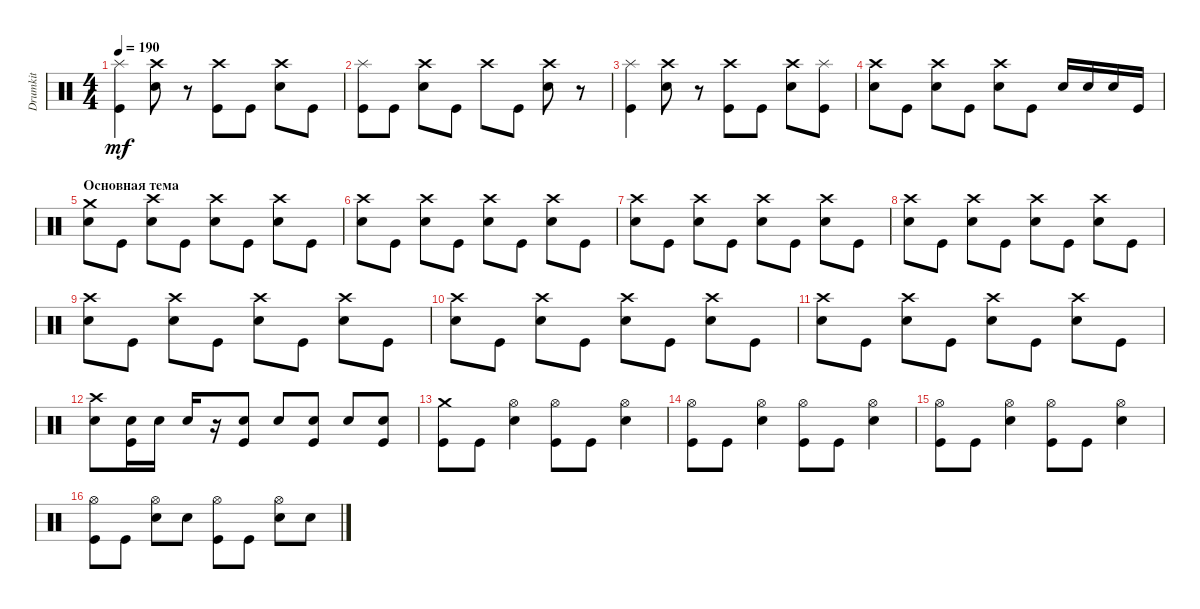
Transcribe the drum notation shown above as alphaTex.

\track ("Drumkit" "Drumkit") {instrument percussion}
\staff {score}
\articulation defaults
\ts (4 4)
\tempo 190
\clef neutral
\ks c
("Kick (hit)" "Splash (hit)").4{dy mf} ("Snare (hit) 2" "Crash high (hit)").8 r.8 ("Kick (hit)" "Crash high (hit)").8 "Kick (hit)".8 ("Snare (hit) 2" "Crash high (hit)").8 "Kick (hit)".8 |
("Splash (hit)" "Kick (hit)").8 "Kick (hit)".8 ("Snare (hit) 2" "Crash high (hit)").8 "Kick (hit)".8 "Crash high (hit)".8 "Kick (hit)".8 ("Snare (hit) 2" "Crash high (hit)").8 r.8 |
("Kick (hit)" "Splash (hit)").4 ("Snare (hit) 2" "Crash high (hit)").8 r.8 ("Kick (hit)" "Crash high (hit)").8 "Kick (hit)".8 ("Snare (hit) 2" "Crash high (hit)").8 ("Splash (hit)" "Kick (hit)").8 |
("Snare (hit) 2" "Crash high (hit)").8 "Kick (hit)".8 ("Snare (hit) 2" "Crash high (hit)").8 "Kick (hit)".8 ("Snare (hit) 2" "Crash high (hit)").8 "Kick (hit)".8 "Snare (hit) 2".16 "Snare (hit) 2".16 "Snare (hit) 2".16 "Kick (hit)".16 |
\section ("" "Основная тема")
("Snare (hit) 2" "Crash medium (hit)").8 "Kick (hit)".8 ("Snare (hit) 2" "Crash high (hit)").8 "Kick (hit)".8 ("Snare (hit) 2" "Crash high (hit)").8 "Kick (hit)".8 ("Snare (hit) 2" "Crash high (hit)").8 "Kick (hit)".8 |
("Snare (hit) 2" "Crash high (hit)").8 "Kick (hit)".8 ("Snare (hit) 2" "Crash high (hit)").8 "Kick (hit)".8 ("Snare (hit) 2" "Crash high (hit)").8 "Kick (hit)".8 ("Snare (hit) 2" "Crash high (hit)").8 "Kick (hit)".8 |
("Snare (hit) 2" "Crash high (hit)").8 "Kick (hit)".8 ("Snare (hit) 2" "Crash high (hit)").8 "Kick (hit)".8 ("Snare (hit) 2" "Crash high (hit)").8 "Kick (hit)".8 ("Snare (hit) 2" "Crash high (hit)").8 "Kick (hit)".8 |
("Snare (hit) 2" "Crash high (hit)").8 "Kick (hit)".8 ("Snare (hit) 2" "Crash high (hit)").8 "Kick (hit)".8 ("Snare (hit) 2" "Crash high (hit)").8 "Kick (hit)".8 ("Snare (hit) 2" "Crash high (hit)").8 "Kick (hit)".8 |
("Snare (hit) 2" "Crash high (hit)").8 "Kick (hit)".8 ("Snare (hit) 2" "Crash high (hit)").8 "Kick (hit)".8 ("Snare (hit) 2" "Crash high (hit)").8 "Kick (hit)".8 ("Snare (hit) 2" "Crash high (hit)").8 "Kick (hit)".8 |
("Snare (hit) 2" "Crash high (hit)").8 "Kick (hit)".8 ("Snare (hit) 2" "Crash high (hit)").8 "Kick (hit)".8 ("Snare (hit) 2" "Crash high (hit)").8 "Kick (hit)".8 ("Snare (hit) 2" "Crash high (hit)").8 "Kick (hit)".8 |
("Snare (hit) 2" "Crash high (hit)").8 "Kick (hit)".8 ("Snare (hit) 2" "Crash high (hit)").8 "Kick (hit)".8 ("Snare (hit) 2" "Crash high (hit)").8 "Kick (hit)".8 ("Snare (hit) 2" "Crash high (hit)").8 "Kick (hit)".8 |
("Snare (hit) 2" "Crash high (hit)").8 ("Kick (hit)" "Snare (hit) 2").16 "Snare (hit) 2".16 "Snare (hit) 2".16 r.16 ("Kick (hit)" "Snare (hit) 2").8 "Snare (hit) 2".8 ("Kick (hit)" "Snare (hit) 2").8 "Snare (hit) 2".8 ("Kick (hit)" "Snare (hit) 2").8 |
("Kick (hit)" "Crash medium (hit)").8 "Kick (hit)".8 ("Snare (hit) 2" "Hi-Hat (open)").4 ("Kick (hit)" "Hi-Hat (open)").8 "Kick (hit)".8 ("Snare (hit) 2" "Hi-Hat (open)").4 |
("Kick (hit)" "Hi-Hat (open)").8 "Kick (hit)".8 ("Snare (hit) 2" "Hi-Hat (open)").4 ("Kick (hit)" "Hi-Hat (open)").8 "Kick (hit)".8 ("Snare (hit) 2" "Hi-Hat (open)").4 |
("Kick (hit)" "Hi-Hat (open)").8 "Kick (hit)".8 ("Snare (hit) 2" "Hi-Hat (open)").4 ("Kick (hit)" "Hi-Hat (open)").8 "Kick (hit)".8 ("Snare (hit) 2" "Hi-Hat (open)").4 |
("Kick (hit)" "Hi-Hat (open)").8 "Kick (hit)".8 ("Snare (hit) 2" "Hi-Hat (open)").8 "Snare (hit) 2".8 ("Kick (hit)" "Hi-Hat (open)").8 "Kick (hit)".8 ("Snare (hit) 2" "Hi-Hat (open)").8 "Snare (hit) 2".8
